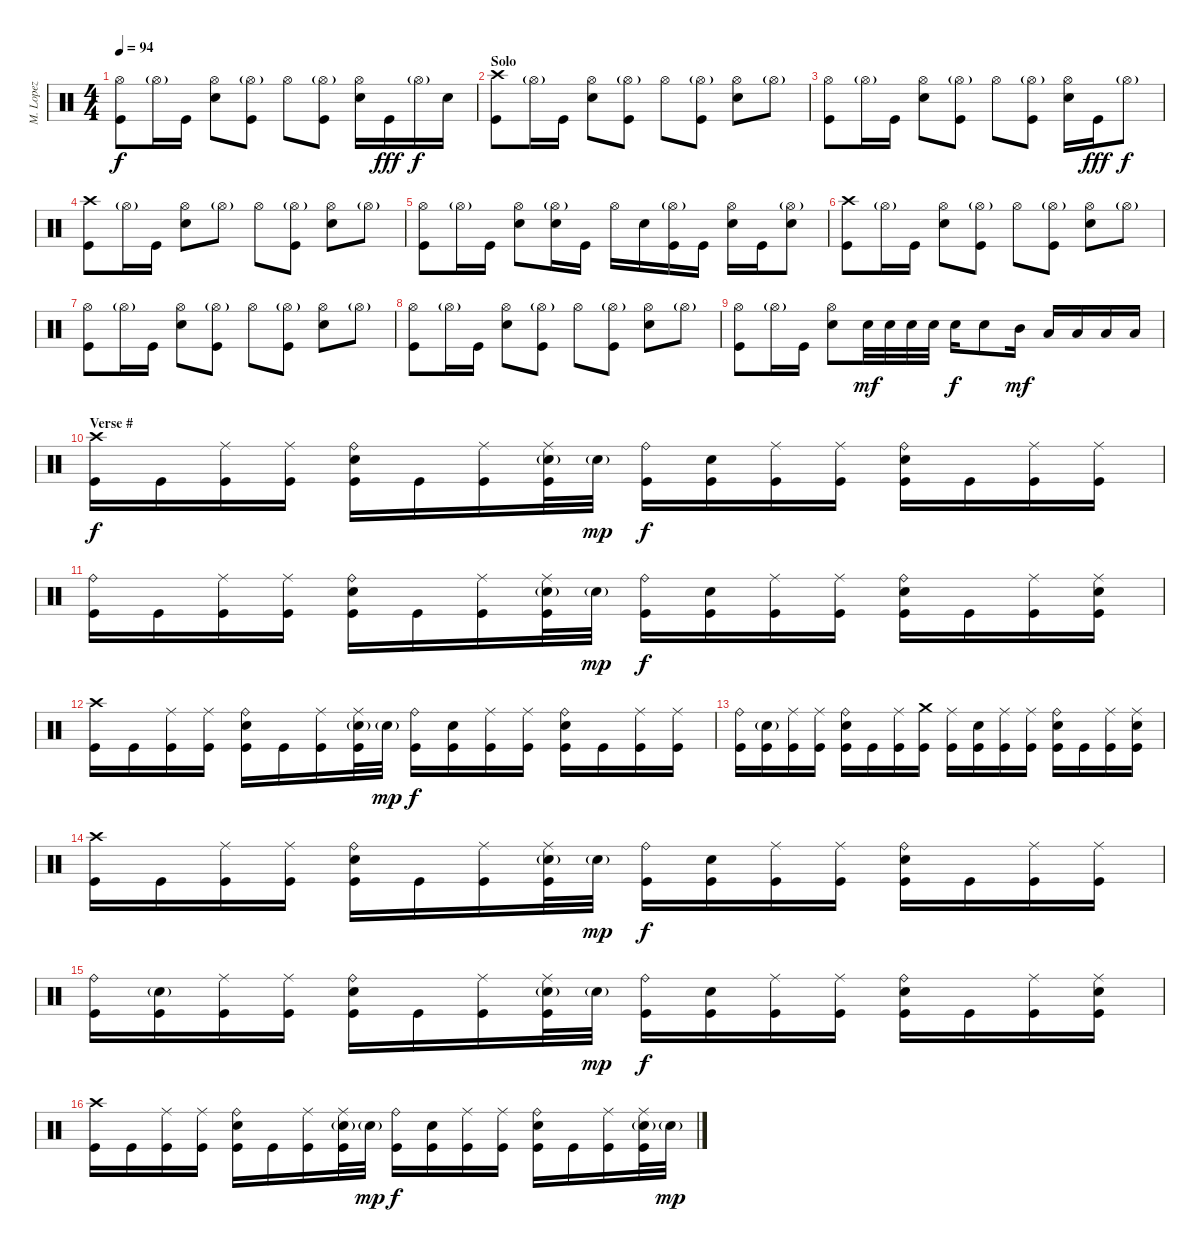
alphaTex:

\track ("M. Lopez" "M. Lopez") {instrument percussion}
\staff {score}
\articulation defaults
\ts (4 4)
\tempo 94
\clef neutral
\ks c
("Hi-Hat (open)" "Kick (hit)").8{dy f} "Hi-Hat (open)"{g}.16 "Kick (hit)".16 ("Hi-Hat (open)" "Electric Snare (hit)").8 ("Hi-Hat (open)"{g} "Kick (hit)").8 "Hi-Hat (open)".8 ("Hi-Hat (open)"{g} "Kick (hit)").8 ("Hi-Hat (open)" "Electric Snare (hit)").16 "Kick (hit)".16{dy fff} "Hi-Hat (open)"{g}.16{dy f} "Electric Snare (hit)".16 |
\section ("" "Solo")
("Crash high (hit)" "Kick (hit)").8 "Hi-Hat (open)"{g}.16 "Kick (hit)".16 ("Hi-Hat (open)" "Electric Snare (hit)").8 ("Hi-Hat (open)"{g} "Kick (hit)").8 "Hi-Hat (open)".8 ("Hi-Hat (open)"{g} "Kick (hit)").8 ("Hi-Hat (open)" "Electric Snare (hit)").8 "Hi-Hat (open)"{g}.8 |
("Hi-Hat (open)" "Kick (hit)").8 "Hi-Hat (open)"{g}.16 "Kick (hit)".16 ("Hi-Hat (open)" "Electric Snare (hit)").8 ("Hi-Hat (open)"{g} "Kick (hit)").8 "Hi-Hat (open)".8 ("Hi-Hat (open)"{g} "Kick (hit)").8 ("Hi-Hat (open)" "Electric Snare (hit)").16 "Kick (hit)".16{dy fff} "Hi-Hat (open)"{g}.8{dy f} |
("Crash high (hit)" "Kick (hit)").8 "Hi-Hat (open)"{g}.16 "Kick (hit)".16 ("Hi-Hat (open)" "Electric Snare (hit)").8 "Hi-Hat (open)"{g}.8 "Hi-Hat (open)".8 ("Hi-Hat (open)"{g} "Kick (hit)").8 ("Hi-Hat (open)" "Electric Snare (hit)").8 "Hi-Hat (open)"{g}.8 |
("Hi-Hat (open)" "Kick (hit)").8 "Hi-Hat (open)"{g}.16 "Kick (hit)".16 ("Hi-Hat (open)" "Electric Snare (hit)").8 ("Hi-Hat (open)"{g} "Electric Snare (hit)").16 "Kick (hit)".16 "Hi-Hat (open)".16 "Electric Snare (hit)".16 ("Hi-Hat (open)"{g} "Kick (hit)").16 "Kick (hit)".16 ("Hi-Hat (open)" "Electric Snare (hit)").16 "Kick (hit)".16 ("Hi-Hat (open)"{g} "Electric Snare (hit)").8 |
("Crash high (hit)" "Kick (hit)").8 "Hi-Hat (open)"{g}.16 "Kick (hit)".16 ("Hi-Hat (open)" "Electric Snare (hit)").8 ("Hi-Hat (open)"{g} "Kick (hit)").8 "Hi-Hat (open)".8 ("Hi-Hat (open)"{g} "Kick (hit)").8 ("Hi-Hat (open)" "Electric Snare (hit)").8 "Hi-Hat (open)"{g}.8 |
("Hi-Hat (open)" "Kick (hit)").8 "Hi-Hat (open)"{g}.16 "Kick (hit)".16 ("Hi-Hat (open)" "Electric Snare (hit)").8 ("Hi-Hat (open)"{g} "Kick (hit)").8 "Hi-Hat (open)".8 ("Hi-Hat (open)"{g} "Kick (hit)").8 ("Hi-Hat (open)" "Electric Snare (hit)").8 "Hi-Hat (open)"{g}.8 |
("Hi-Hat (open)" "Kick (hit)").8 "Hi-Hat (open)"{g}.16 "Kick (hit)".16 ("Hi-Hat (open)" "Electric Snare (hit)").8 ("Hi-Hat (open)"{g} "Kick (hit)").8 "Hi-Hat (open)".8 ("Hi-Hat (open)"{g} "Kick (hit)").8 ("Hi-Hat (open)" "Electric Snare (hit)").8 "Hi-Hat (open)"{g}.8 |
("Hi-Hat (open)" "Kick (hit)").8 "Hi-Hat (open)"{g}.16 "Kick (hit)".16 ("Hi-Hat (open)" "Electric Snare (hit)").8 "Electric Snare (hit)".32{dy mf} "Electric Snare (hit)".32 "Electric Snare (hit)".32 "Electric Snare (hit)".32 "Electric Snare (hit)".16{dy f} "Electric Snare (hit)".8 "Mid Tom (hit)".16{dy mf} "Low Tom (hit)".16 "Low Tom (hit)".16 "Low Floor Tom (hit)".16 "Low Floor Tom (hit)".16 |
\section ("" "Verse #")
("Crash high (hit)" "Kick (hit)").16{dy f} "Kick (hit)".16 ("Ride (middle)" "Kick (hit)").16 ("Ride (middle)" "Kick (hit)").16 ("Ride (bell)" "Electric Snare (hit)" "Kick (hit)").16 "Kick (hit)".16 ("Ride (middle)" "Kick (hit)").16 ("Ride (middle)" "Electric Snare (hit)"{g} "Kick (hit)").32 "Electric Snare (hit)"{g}.32{dy mp} ("Ride (bell)" "Kick (hit)").16{dy f} ("Electric Snare (hit)" "Kick (hit)").16 ("Ride (middle)" "Kick (hit)").16 ("Ride (middle)" "Kick (hit)").16 ("Ride (bell)" "Electric Snare (hit)" "Kick (hit)").16 "Kick (hit)".16 ("Ride (middle)" "Kick (hit)").16 ("Ride (middle)" "Kick (hit)").16 |
("Ride (bell)" "Kick (hit)").16 "Kick (hit)".16 ("Ride (middle)" "Kick (hit)").16 ("Ride (middle)" "Kick (hit)").16 ("Ride (bell)" "Electric Snare (hit)" "Kick (hit)").16 "Kick (hit)".16 ("Ride (middle)" "Kick (hit)").16 ("Ride (middle)" "Electric Snare (hit)"{g} "Kick (hit)").32 "Electric Snare (hit)"{g}.32{dy mp} ("Ride (bell)" "Kick (hit)").16{dy f} ("Electric Snare (hit)" "Kick (hit)").16 ("Ride (middle)" "Kick (hit)").16 ("Ride (middle)" "Kick (hit)").16 ("Ride (bell)" "Electric Snare (hit)" "Kick (hit)").16 "Kick (hit)".16 ("Ride (middle)" "Kick (hit)").16 ("Ride (middle)" "Electric Snare (hit)" "Kick (hit)").16 |
("Crash high (hit)" "Kick (hit)").16 "Kick (hit)".16 ("Ride (middle)" "Kick (hit)").16 ("Ride (middle)" "Kick (hit)").16 ("Ride (bell)" "Electric Snare (hit)" "Kick (hit)").16 "Kick (hit)".16 ("Ride (middle)" "Kick (hit)").16 ("Ride (middle)" "Electric Snare (hit)"{g} "Kick (hit)").32 "Electric Snare (hit)"{g}.32{dy mp} ("Ride (bell)" "Kick (hit)").16{dy f} ("Electric Snare (hit)" "Kick (hit)").16 ("Ride (middle)" "Kick (hit)").16 ("Ride (middle)" "Kick (hit)").16 ("Ride (bell)" "Electric Snare (hit)" "Kick (hit)").16 "Kick (hit)".16 ("Ride (middle)" "Kick (hit)").16 ("Ride (middle)" "Kick (hit)").16 |
("Ride (bell)" "Kick (hit)").16 ("Electric Snare (hit)"{g} "Kick (hit)").16 ("Ride (middle)" "Kick (hit)").16 ("Ride (middle)" "Kick (hit)").16 ("Ride (bell)" "Electric Snare (hit)" "Kick (hit)").16 "Kick (hit)".16 ("Ride (middle)" "Kick (hit)").16 ("Crash medium (hit)" "Kick (hit)").16 ("Ride (middle)" "Kick (hit)").16 ("Electric Snare (hit)" "Kick (hit)").16 ("Ride (middle)" "Kick (hit)").16 ("Ride (middle)" "Kick (hit)").16 ("Ride (bell)" "Electric Snare (hit)" "Kick (hit)").16 "Kick (hit)".16 ("Ride (middle)" "Kick (hit)").16 ("Ride (middle)" "Electric Snare (hit)" "Kick (hit)").16 |
("Crash high (hit)" "Kick (hit)").16 "Kick (hit)".16 ("Ride (middle)" "Kick (hit)").16 ("Ride (middle)" "Kick (hit)").16 ("Ride (bell)" "Electric Snare (hit)" "Kick (hit)").16 "Kick (hit)".16 ("Ride (middle)" "Kick (hit)").16 ("Ride (middle)" "Electric Snare (hit)"{g} "Kick (hit)").32 "Electric Snare (hit)"{g}.32{dy mp} ("Ride (bell)" "Kick (hit)").16{dy f} ("Electric Snare (hit)" "Kick (hit)").16 ("Ride (middle)" "Kick (hit)").16 ("Ride (middle)" "Kick (hit)").16 ("Ride (bell)" "Electric Snare (hit)" "Kick (hit)").16 "Kick (hit)".16 ("Ride (middle)" "Kick (hit)").16 ("Ride (middle)" "Kick (hit)").16 |
("Ride (bell)" "Kick (hit)").16 ("Electric Snare (hit)"{g} "Kick (hit)").16 ("Ride (middle)" "Kick (hit)").16 ("Ride (middle)" "Kick (hit)").16 ("Ride (bell)" "Electric Snare (hit)" "Kick (hit)").16 "Kick (hit)".16 ("Ride (middle)" "Kick (hit)").16 ("Ride (middle)" "Electric Snare (hit)"{g} "Kick (hit)").32 "Electric Snare (hit)"{g}.32{dy mp} ("Ride (bell)" "Kick (hit)").16{dy f} ("Electric Snare (hit)" "Kick (hit)").16 ("Ride (middle)" "Kick (hit)").16 ("Ride (middle)" "Kick (hit)").16 ("Ride (bell)" "Electric Snare (hit)" "Kick (hit)").16 "Kick (hit)".16 ("Ride (middle)" "Kick (hit)").16 ("Ride (middle)" "Electric Snare (hit)" "Kick (hit)").16 |
("Crash high (hit)" "Kick (hit)").16 "Kick (hit)".16 ("Ride (middle)" "Kick (hit)").16 ("Ride (middle)" "Kick (hit)").16 ("Ride (bell)" "Electric Snare (hit)" "Kick (hit)").16 "Kick (hit)".16 ("Ride (middle)" "Kick (hit)").16 ("Ride (middle)" "Electric Snare (hit)"{g} "Kick (hit)").32 "Electric Snare (hit)"{g}.32{dy mp} ("Ride (bell)" "Kick (hit)").16{dy f} ("Electric Snare (hit)" "Kick (hit)").16 ("Ride (middle)" "Kick (hit)").16 ("Ride (middle)" "Kick (hit)").16 ("Ride (bell)" "Electric Snare (hit)" "Kick (hit)").16 "Kick (hit)".16 ("Ride (middle)" "Kick (hit)").16 ("Ride (middle)" "Electric Snare (hit)"{g} "Kick (hit)").32 "Electric Snare (hit)"{g}.32{dy mp}
